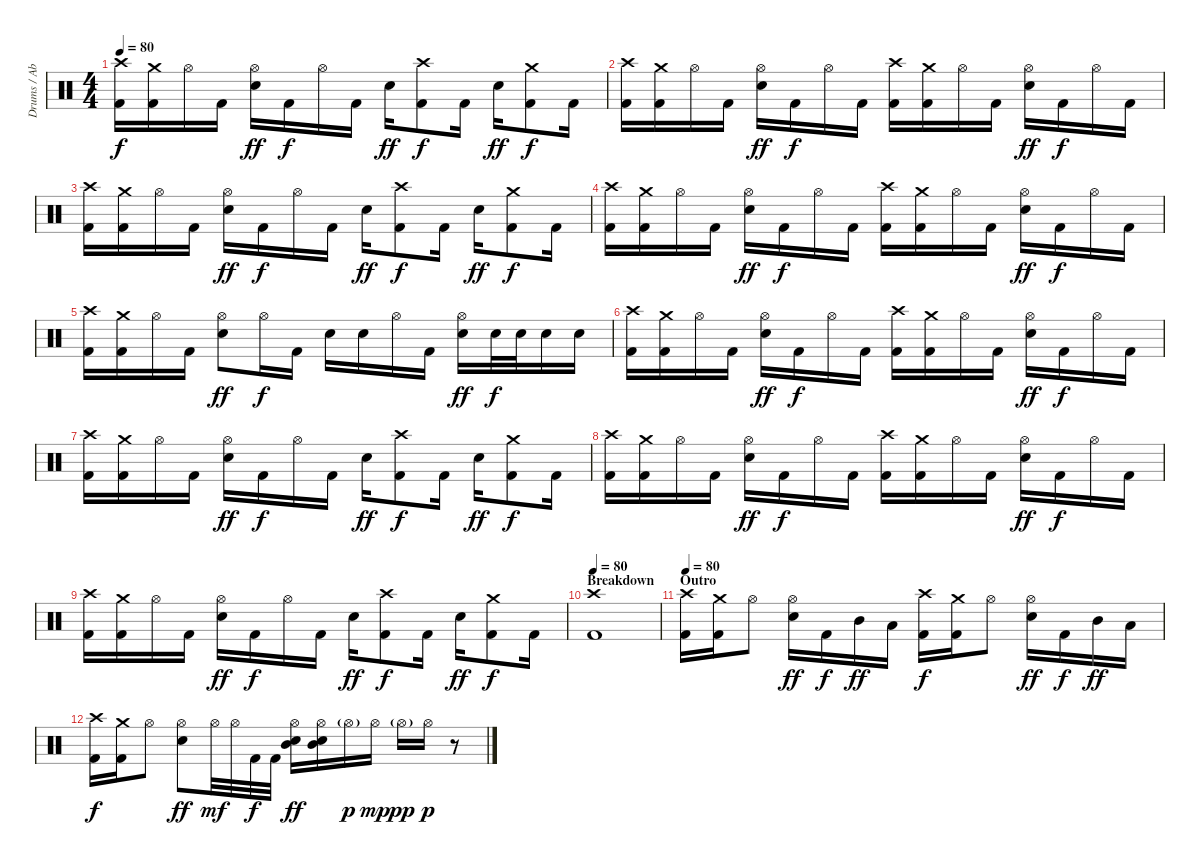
\track ("Drums / Abe Cunningham" "Drums / Ab") {instrument percussion}
\staff {score}
\articulation defaults
\ts (4 4)
\tempo 80
\clef neutral
\ks c
("Crash high (hit)" "Kick (hit) 2").16{dy f} ("Crash medium (hit)" "Kick (hit) 2").16 "Hi-Hat (open)".16 "Kick (hit) 2".16 ("Hi-Hat (open)" "Electric Snare (hit)").16{dy ff} "Kick (hit) 2".16{dy f} "Hi-Hat (open)".16 "Kick (hit) 2".16 "Electric Snare (hit)".16{dy ff} ("Crash high (hit)" "Kick (hit) 2").8{dy f} "Kick (hit) 2".16 "Electric Snare (hit)".16{dy ff} ("Crash medium (hit)" "Kick (hit) 2").8{dy f} "Kick (hit) 2".16 |
("Crash high (hit)" "Kick (hit) 2").16 ("Crash medium (hit)" "Kick (hit) 2").16 "Hi-Hat (open)".16 "Kick (hit) 2".16 ("Hi-Hat (open)" "Electric Snare (hit)").16{dy ff} "Kick (hit) 2".16{dy f} "Hi-Hat (open)".16 "Kick (hit) 2".16 ("Crash high (hit)" "Kick (hit) 2").16 ("Crash medium (hit)" "Kick (hit) 2").16 "Hi-Hat (open)".16 "Kick (hit) 2".16 ("Hi-Hat (open)" "Electric Snare (hit)").16{dy ff} "Kick (hit) 2".16{dy f} "Hi-Hat (open)".16 "Kick (hit) 2".16 |
("Crash high (hit)" "Kick (hit) 2").16 ("Crash medium (hit)" "Kick (hit) 2").16 "Hi-Hat (open)".16 "Kick (hit) 2".16 ("Hi-Hat (open)" "Electric Snare (hit)").16{dy ff} "Kick (hit) 2".16{dy f} "Hi-Hat (open)".16 "Kick (hit) 2".16 "Electric Snare (hit)".16{dy ff} ("Crash high (hit)" "Kick (hit) 2").8{dy f} "Kick (hit) 2".16 "Electric Snare (hit)".16{dy ff} ("Crash medium (hit)" "Kick (hit) 2").8{dy f} "Kick (hit) 2".16 |
("Crash high (hit)" "Kick (hit) 2").16 ("Crash medium (hit)" "Kick (hit) 2").16 "Hi-Hat (open)".16 "Kick (hit) 2".16 ("Hi-Hat (open)" "Electric Snare (hit)").16{dy ff} "Kick (hit) 2".16{dy f} "Hi-Hat (open)".16 "Kick (hit) 2".16 ("Crash high (hit)" "Kick (hit) 2").16 ("Crash medium (hit)" "Kick (hit) 2").16 "Hi-Hat (open)".16 "Kick (hit) 2".16 ("Hi-Hat (open)" "Electric Snare (hit)").16{dy ff} "Kick (hit) 2".16{dy f} "Hi-Hat (open)".16 "Kick (hit) 2".16 |
("Crash high (hit)" "Kick (hit) 2").16 ("Crash medium (hit)" "Kick (hit) 2").16 "Hi-Hat (open)".16 "Kick (hit) 2".16 ("Hi-Hat (open)" "Electric Snare (hit)").8{dy ff} "Hi-Hat (open)".16{dy f} "Kick (hit) 2".16 "Electric Snare (hit)".16 "Electric Snare (hit)".16 "Hi-Hat (open)".16 "Kick (hit) 2".16 ("Hi-Hat (open)" "Electric Snare (hit)").16{dy ff} "Electric Snare (hit)".32{dy f} "Electric Snare (hit)".32 "Electric Snare (hit)".16 "Electric Snare (hit)".16 |
("Crash high (hit)" "Kick (hit) 2").16 ("Crash medium (hit)" "Kick (hit) 2").16 "Hi-Hat (open)".16 "Kick (hit) 2".16 ("Hi-Hat (open)" "Electric Snare (hit)").16{dy ff} "Kick (hit) 2".16{dy f} "Hi-Hat (open)".16 "Kick (hit) 2".16 ("Crash high (hit)" "Kick (hit) 2").16 ("Crash medium (hit)" "Kick (hit) 2").16 "Hi-Hat (open)".16 "Kick (hit) 2".16 ("Hi-Hat (open)" "Electric Snare (hit)").16{dy ff} "Kick (hit) 2".16{dy f} "Hi-Hat (open)".16 "Kick (hit) 2".16 |
("Crash high (hit)" "Kick (hit) 2").16 ("Crash medium (hit)" "Kick (hit) 2").16 "Hi-Hat (open)".16 "Kick (hit) 2".16 ("Hi-Hat (open)" "Electric Snare (hit)").16{dy ff} "Kick (hit) 2".16{dy f} "Hi-Hat (open)".16 "Kick (hit) 2".16 "Electric Snare (hit)".16{dy ff} ("Crash high (hit)" "Kick (hit) 2").8{dy f} "Kick (hit) 2".16 "Electric Snare (hit)".16{dy ff} ("Crash medium (hit)" "Kick (hit) 2").8{dy f} "Kick (hit) 2".16 |
("Crash high (hit)" "Kick (hit) 2").16 ("Crash medium (hit)" "Kick (hit) 2").16 "Hi-Hat (open)".16 "Kick (hit) 2".16 ("Hi-Hat (open)" "Electric Snare (hit)").16{dy ff} "Kick (hit) 2".16{dy f} "Hi-Hat (open)".16 "Kick (hit) 2".16 ("Crash high (hit)" "Kick (hit) 2").16 ("Crash medium (hit)" "Kick (hit) 2").16 "Hi-Hat (open)".16 "Kick (hit) 2".16 ("Hi-Hat (open)" "Electric Snare (hit)").16{dy ff} "Kick (hit) 2".16{dy f} "Hi-Hat (open)".16 "Kick (hit) 2".16 |
("Crash high (hit)" "Kick (hit) 2").16 ("Crash medium (hit)" "Kick (hit) 2").16 "Hi-Hat (open)".16 "Kick (hit) 2".16 ("Hi-Hat (open)" "Electric Snare (hit)").16{dy ff} "Kick (hit) 2".16{dy f} "Hi-Hat (open)".16 "Kick (hit) 2".16 "Electric Snare (hit)".16{dy ff} ("Crash high (hit)" "Kick (hit) 2").8{dy f} "Kick (hit) 2".16 "Electric Snare (hit)".16{dy ff} ("Crash medium (hit)" "Kick (hit) 2").8{dy f} "Kick (hit) 2".16 |
\section ("" "Breakdown")
\tempo 80
("Crash high (hit)" "Kick (hit) 2").1 |
\section ("" "Outro")
\tempo 80
("Crash high (hit)" "Kick (hit) 2").16 ("Crash medium (hit)" "Kick (hit) 2").16 "Hi-Hat (open)".8 ("Hi-Hat (open)" "Electric Snare (hit)").16{dy ff} "Kick (hit) 2".16{dy f} "Mid Tom (hit)".16{dy ff} "Low Tom (hit)".16 ("Crash high (hit)" "Kick (hit) 2").16{dy f} ("Crash medium (hit)" "Kick (hit) 2").16 "Hi-Hat (open)".8 ("Hi-Hat (open)" "Electric Snare (hit)").16{dy ff} "Kick (hit) 2".16{dy f} "Mid Tom (hit)".16{dy ff} "Low Tom (hit)".16 |
("Crash high (hit)" "Kick (hit) 2").16{dy f} ("Crash medium (hit)" "Kick (hit) 2").16 "Hi-Hat (open)".8 ("Hi-Hat (open)" "Electric Snare (hit)").8{dy ff} "Hi-Hat (open)".32{dy mf} "Hi-Hat (open)".32 "Kick (hit) 2".32{dy f} "Kick (hit) 2".32 ("Hi-Hat (open)" "Electric Snare (hit)" "Mid Tom (hit)").16{dy ff} ("Hi-Hat (open)" "Electric Snare (hit)" "Mid Tom (hit)").16 "Hi-Hat (open)"{g}.16{dy p} "Hi-Hat (open)".16{dy mp} "Hi-Hat (open)"{g}.16{dy pp} "Hi-Hat (open)".16{dy p} r.8
